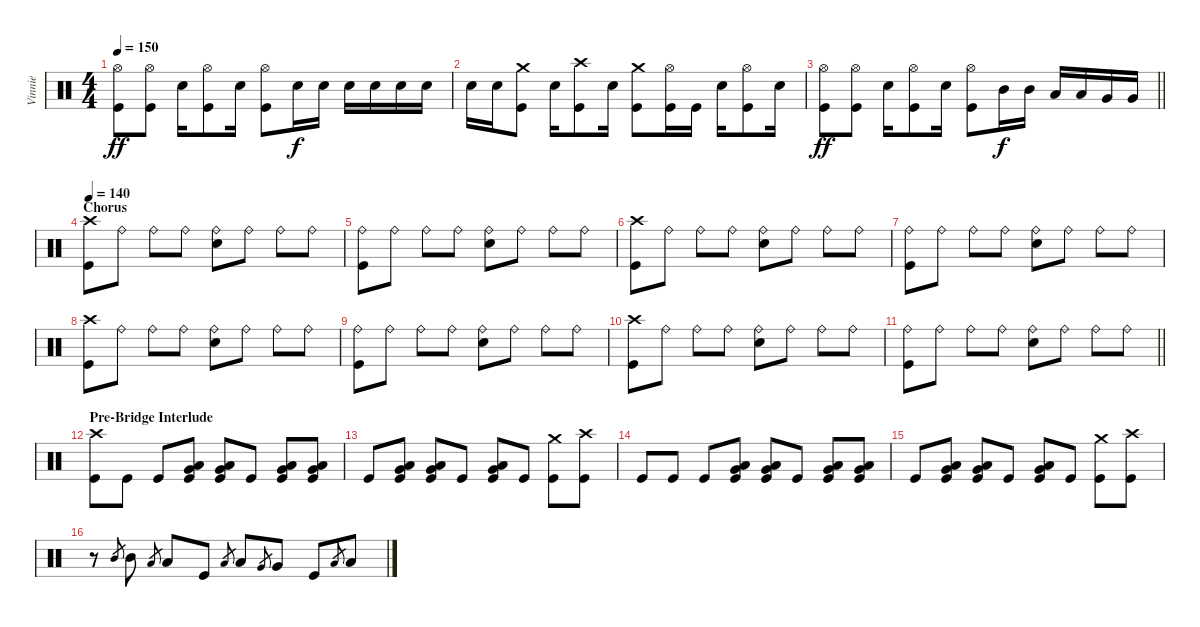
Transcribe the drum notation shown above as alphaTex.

\track ("Vinnie" "Vinnie") {instrument percussion}
\staff {score}
\articulation defaults
\ts (4 4)
\tempo 150
\clef neutral
\ks c
("Hi-Hat (open)" "Kick (hit)").8{dy ff} ("Hi-Hat (open)" "Kick (hit)").8 "Electric Snare (hit)".16 ("Hi-Hat (open)" "Kick (hit)").8 "Electric Snare (hit)".16 ("Hi-Hat (open)" "Kick (hit)").8 "Electric Snare (hit)".16{dy f} "Electric Snare (hit)".16 "Electric Snare (hit)".16 "Electric Snare (hit)".16 "Electric Snare (hit)".16 "Electric Snare (hit)".16 |
"Electric Snare (hit)".16 "Electric Snare (hit)".16 ("Crash medium (hit)" "Kick (hit)").8 "Electric Snare (hit)".16 ("Crash high (hit)" "Kick (hit)").8 "Electric Snare (hit)".16 ("Crash medium (hit)" "Kick (hit)").8 ("Hi-Hat (open)" "Kick (hit)").16 "Kick (hit)".16 "Electric Snare (hit)".16 ("Hi-Hat (open)" "Kick (hit)").8 "Electric Snare (hit)".16 |
\barLineRight lightlight
("Hi-Hat (open)" "Kick (hit)").8{dy ff} ("Hi-Hat (open)" "Kick (hit)").8 "Electric Snare (hit)".16 ("Hi-Hat (open)" "Kick (hit)").8 "Electric Snare (hit)".16 ("Hi-Hat (open)" "Kick (hit)").8 "Mid Tom (hit)".16{dy f} "Mid Tom (hit)".16 "Low Tom (hit)".16 "Low Tom (hit)".16 "Very Low Tom (hit)".16 "Very Low Tom (hit)".16 |
\section ("" "Chorus")
\tempo 140
("Crash high (hit)" "Kick (hit)").8 "Ride (bell)".8 "Ride (bell)".8 "Ride (bell)".8 ("Ride (bell)" "Electric Snare (hit)").8 "Ride (bell)".8 "Ride (bell)".8 "Ride (bell)".8 |
("Ride (bell)" "Kick (hit)").8 "Ride (bell)".8 "Ride (bell)".8 "Ride (bell)".8 ("Ride (bell)" "Electric Snare (hit)").8 "Ride (bell)".8 "Ride (bell)".8 "Ride (bell)".8 |
("Crash high (hit)" "Kick (hit)").8 "Ride (bell)".8 "Ride (bell)".8 "Ride (bell)".8 ("Ride (bell)" "Electric Snare (hit)").8 "Ride (bell)".8 "Ride (bell)".8 "Ride (bell)".8 |
("Ride (bell)" "Kick (hit)").8 "Ride (bell)".8 "Ride (bell)".8 "Ride (bell)".8 ("Ride (bell)" "Electric Snare (hit)").8 "Ride (bell)".8 "Ride (bell)".8 "Ride (bell)".8 |
("Crash high (hit)" "Kick (hit)").8 "Ride (bell)".8 "Ride (bell)".8 "Ride (bell)".8 ("Ride (bell)" "Electric Snare (hit)").8 "Ride (bell)".8 "Ride (bell)".8 "Ride (bell)".8 |
("Ride (bell)" "Kick (hit)").8 "Ride (bell)".8 "Ride (bell)".8 "Ride (bell)".8 ("Ride (bell)" "Electric Snare (hit)").8 "Ride (bell)".8 "Ride (bell)".8 "Ride (bell)".8 |
("Crash high (hit)" "Kick (hit)").8 "Ride (bell)".8 "Ride (bell)".8 "Ride (bell)".8 ("Ride (bell)" "Electric Snare (hit)").8 "Ride (bell)".8 "Ride (bell)".8 "Ride (bell)".8 |
\barLineRight lightlight
("Ride (bell)" "Kick (hit)").8 "Ride (bell)".8 "Ride (bell)".8 "Ride (bell)".8 ("Ride (bell)" "Electric Snare (hit)").8 "Ride (bell)".8 "Ride (bell)".8 "Ride (bell)".8 |
\section ("" "Pre-Bridge Interlude")
("Crash high (hit)" "Kick (hit)").8 "Kick (hit)".8 "Kick (hit)".8 ("Low Tom (hit)" "Very Low Tom (hit)" "Kick (hit)").8 ("Low Tom (hit)" "Very Low Tom (hit)" "Kick (hit)").8 "Kick (hit)".8 ("Low Tom (hit)" "Very Low Tom (hit)" "Kick (hit)").8 ("Low Tom (hit)" "Very Low Tom (hit)" "Kick (hit)").8 |
"Kick (hit)".8 ("Low Tom (hit)" "Very Low Tom (hit)" "Kick (hit)").8 ("Low Tom (hit)" "Very Low Tom (hit)" "Kick (hit)").8 "Kick (hit)".8 ("Low Tom (hit)" "Very Low Tom (hit)" "Kick (hit)").8 "Kick (hit)".8 ("Crash medium (hit)" "Kick (hit)").8 ("Crash high (hit)" "Kick (hit)").8 |
"Kick (hit)".8 "Kick (hit)".8 "Kick (hit)".8 ("Low Tom (hit)" "Very Low Tom (hit)" "Kick (hit)").8 ("Low Tom (hit)" "Very Low Tom (hit)" "Kick (hit)").8 "Kick (hit)".8 ("Low Tom (hit)" "Very Low Tom (hit)" "Kick (hit)").8 ("Low Tom (hit)" "Very Low Tom (hit)" "Kick (hit)").8 |
"Kick (hit)".8 ("Low Tom (hit)" "Very Low Tom (hit)" "Kick (hit)").8 ("Low Tom (hit)" "Very Low Tom (hit)" "Kick (hit)").8 "Kick (hit)".8 ("Low Tom (hit)" "Very Low Tom (hit)" "Kick (hit)").8 "Kick (hit)".8 ("Crash medium (hit)" "Kick (hit)").8 ("Crash high (hit)" "Kick (hit)").8 |
r.8 "Mid Tom (hit)".8{gr} "Mid Tom (hit)".8 "Low Tom (hit)".8{gr} "Low Tom (hit)".8 "Kick (hit)".8 "Low Tom (hit)".8{gr} "Low Tom (hit)".8 "Very Low Tom (hit)".8{gr} "Very Low Tom (hit)".8 "Kick (hit)".8 "Low Tom (hit)".8{gr} "Low Tom (hit)".8
